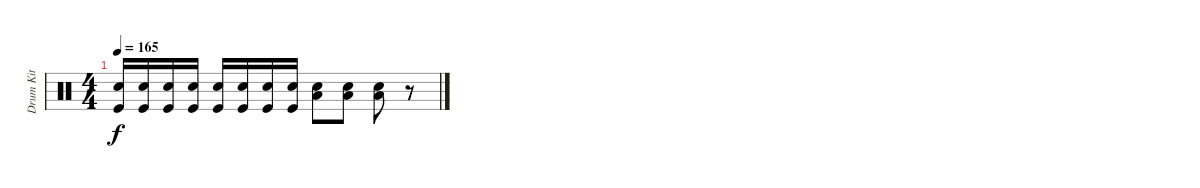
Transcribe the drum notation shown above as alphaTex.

\track ("Drum Kit" "Drum Kit") {instrument percussion}
\staff {score}
\articulation defaults
\ts (4 4)
\tempo 165
\clef neutral
\ks c
("Snare (hit) 2" "Kick (hit)").16{dy f} ("Snare (hit) 2" "Kick (hit)").16 ("Snare (hit) 2" "Kick (hit)").16 ("Snare (hit) 2" "Kick (hit)").16 ("Snare (hit) 2" "Kick (hit)").16 ("Snare (hit) 2" "Kick (hit)").16 ("Snare (hit) 2" "Kick (hit)").16 ("Snare (hit) 2" "Kick (hit)").16 ("Snare (hit) 2" "Low Tom (hit)").8 ("Snare (hit) 2" "Low Tom (hit)").8 ("Snare (hit) 2" "Low Tom (hit)").8 r.8
